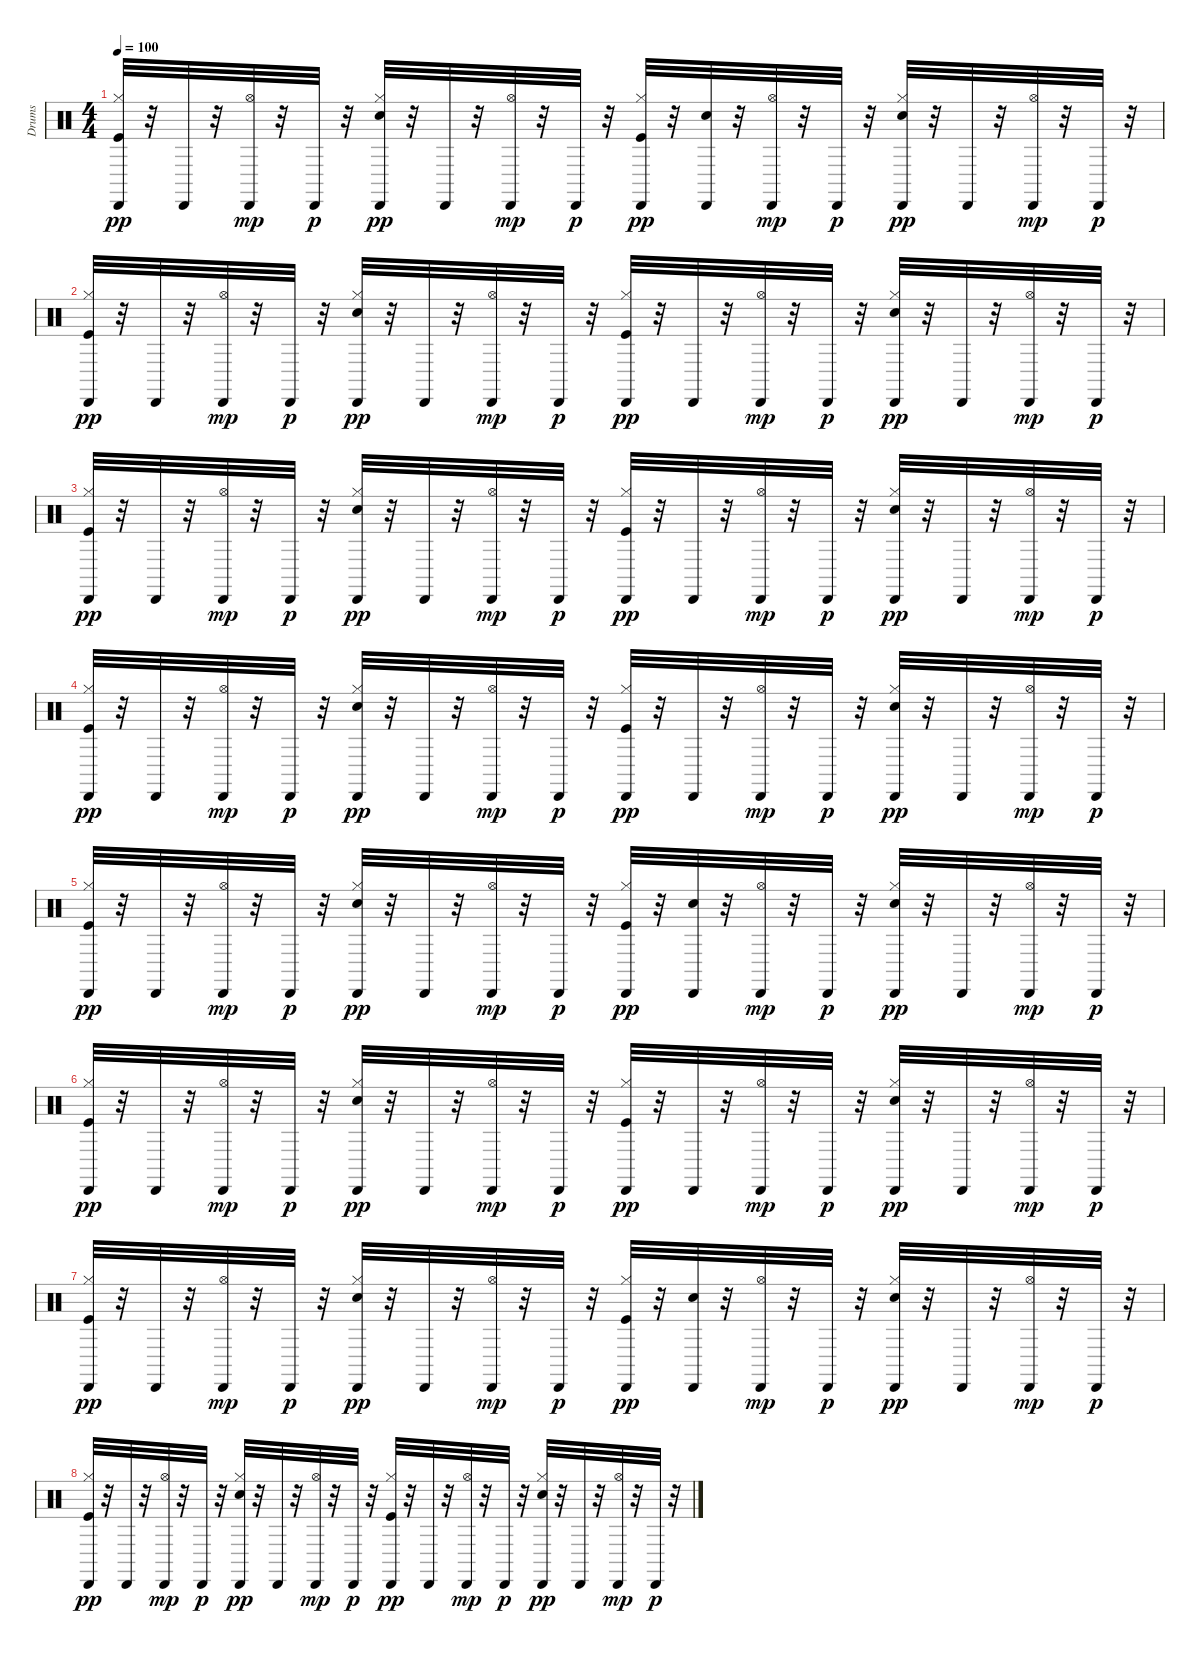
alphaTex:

\track ("Drums" "Drums") {instrument percussion}
\staff {score}
\articulation defaults
\ts (4 4)
\tempo 100
\clef neutral
\ks c
("Kick (hit)" "Hi-Hat (closed)" "Cabasa (hit)").32{dy pp} r.32 "Cabasa (hit)".32 r.32 ("Hi-Hat (open)" "Cabasa (hit)").32{dy mp} r.32 "Cabasa (hit)".32{dy p} r.32 ("Electric Snare (hit)" "Hi-Hat (closed)" "Cabasa (hit)").32{dy pp} r.32 "Cabasa (hit)".32 r.32 ("Hi-Hat (open)" "Cabasa (hit)").32{dy mp} r.32 "Cabasa (hit)".32{dy p} r.32 ("Kick (hit)" "Hi-Hat (closed)" "Cabasa (hit)").32{dy pp} r.32 ("Electric Snare (hit)" "Cabasa (hit)").32 r.32 ("Hi-Hat (open)" "Cabasa (hit)").32{dy mp} r.32 "Cabasa (hit)".32{dy p} r.32 ("Electric Snare (hit)" "Hi-Hat (closed)" "Cabasa (hit)").32{dy pp} r.32 "Cabasa (hit)".32 r.32 ("Hi-Hat (open)" "Cabasa (hit)").32{dy mp} r.32 "Cabasa (hit)".32{dy p} r.32 |
("Kick (hit)" "Hi-Hat (closed)" "Cabasa (hit)").32{dy pp} r.32 "Cabasa (hit)".32 r.32 ("Hi-Hat (open)" "Cabasa (hit)").32{dy mp} r.32 "Cabasa (hit)".32{dy p} r.32 ("Electric Snare (hit)" "Hi-Hat (closed)" "Cabasa (hit)").32{dy pp} r.32 "Cabasa (hit)".32 r.32 ("Hi-Hat (open)" "Cabasa (hit)").32{dy mp} r.32 "Cabasa (hit)".32{dy p} r.32 ("Kick (hit)" "Hi-Hat (closed)" "Cabasa (hit)").32{dy pp} r.32 "Cabasa (hit)".32 r.32 ("Hi-Hat (open)" "Cabasa (hit)").32{dy mp} r.32 "Cabasa (hit)".32{dy p} r.32 ("Electric Snare (hit)" "Hi-Hat (closed)" "Cabasa (hit)").32{dy pp} r.32 "Cabasa (hit)".32 r.32 ("Hi-Hat (open)" "Cabasa (hit)").32{dy mp} r.32 "Cabasa (hit)".32{dy p} r.32 |
("Kick (hit)" "Hi-Hat (closed)" "Cabasa (hit)").32{dy pp} r.32 "Cabasa (hit)".32 r.32 ("Hi-Hat (open)" "Cabasa (hit)").32{dy mp} r.32 "Cabasa (hit)".32{dy p} r.32 ("Electric Snare (hit)" "Hi-Hat (closed)" "Cabasa (hit)").32{dy pp} r.32 "Cabasa (hit)".32 r.32 ("Hi-Hat (open)" "Cabasa (hit)").32{dy mp} r.32 "Cabasa (hit)".32{dy p} r.32 ("Kick (hit)" "Hi-Hat (closed)" "Cabasa (hit)").32{dy pp} r.32 "Cabasa (hit)".32 r.32 ("Hi-Hat (open)" "Cabasa (hit)").32{dy mp} r.32 "Cabasa (hit)".32{dy p} r.32 ("Electric Snare (hit)" "Hi-Hat (closed)" "Cabasa (hit)").32{dy pp} r.32 "Cabasa (hit)".32 r.32 ("Hi-Hat (open)" "Cabasa (hit)").32{dy mp} r.32 "Cabasa (hit)".32{dy p} r.32 |
("Kick (hit)" "Hi-Hat (closed)" "Cabasa (hit)").32{dy pp} r.32 "Cabasa (hit)".32 r.32 ("Hi-Hat (open)" "Cabasa (hit)").32{dy mp} r.32 "Cabasa (hit)".32{dy p} r.32 ("Electric Snare (hit)" "Hi-Hat (closed)" "Cabasa (hit)").32{dy pp} r.32 "Cabasa (hit)".32 r.32 ("Hi-Hat (open)" "Cabasa (hit)").32{dy mp} r.32 "Cabasa (hit)".32{dy p} r.32 ("Kick (hit)" "Hi-Hat (closed)" "Cabasa (hit)").32{dy pp} r.32 "Cabasa (hit)".32 r.32 ("Hi-Hat (open)" "Cabasa (hit)").32{dy mp} r.32 "Cabasa (hit)".32{dy p} r.32 ("Electric Snare (hit)" "Hi-Hat (closed)" "Cabasa (hit)").32{dy pp} r.32 "Cabasa (hit)".32 r.32 ("Hi-Hat (open)" "Cabasa (hit)").32{dy mp} r.32 "Cabasa (hit)".32{dy p} r.32 |
("Kick (hit)" "Hi-Hat (closed)" "Cabasa (hit)").32{dy pp} r.32 "Cabasa (hit)".32 r.32 ("Hi-Hat (open)" "Cabasa (hit)").32{dy mp} r.32 "Cabasa (hit)".32{dy p} r.32 ("Electric Snare (hit)" "Hi-Hat (closed)" "Cabasa (hit)").32{dy pp} r.32 "Cabasa (hit)".32 r.32 ("Hi-Hat (open)" "Cabasa (hit)").32{dy mp} r.32 "Cabasa (hit)".32{dy p} r.32 ("Kick (hit)" "Hi-Hat (closed)" "Cabasa (hit)").32{dy pp} r.32 ("Electric Snare (hit)" "Cabasa (hit)").32 r.32 ("Hi-Hat (open)" "Cabasa (hit)").32{dy mp} r.32 "Cabasa (hit)".32{dy p} r.32 ("Electric Snare (hit)" "Hi-Hat (closed)" "Cabasa (hit)").32{dy pp} r.32 "Cabasa (hit)".32 r.32 ("Hi-Hat (open)" "Cabasa (hit)").32{dy mp} r.32 "Cabasa (hit)".32{dy p} r.32 |
("Kick (hit)" "Hi-Hat (closed)" "Cabasa (hit)").32{dy pp} r.32 "Cabasa (hit)".32 r.32 ("Hi-Hat (open)" "Cabasa (hit)").32{dy mp} r.32 "Cabasa (hit)".32{dy p} r.32 ("Electric Snare (hit)" "Hi-Hat (closed)" "Cabasa (hit)").32{dy pp} r.32 "Cabasa (hit)".32 r.32 ("Hi-Hat (open)" "Cabasa (hit)").32{dy mp} r.32 "Cabasa (hit)".32{dy p} r.32 ("Kick (hit)" "Hi-Hat (closed)" "Cabasa (hit)").32{dy pp} r.32 "Cabasa (hit)".32 r.32 ("Hi-Hat (open)" "Cabasa (hit)").32{dy mp} r.32 "Cabasa (hit)".32{dy p} r.32 ("Electric Snare (hit)" "Hi-Hat (closed)" "Cabasa (hit)").32{dy pp} r.32 "Cabasa (hit)".32 r.32 ("Hi-Hat (open)" "Cabasa (hit)").32{dy mp} r.32 "Cabasa (hit)".32{dy p} r.32 |
("Kick (hit)" "Hi-Hat (closed)" "Cabasa (hit)").32{dy pp} r.32 "Cabasa (hit)".32 r.32 ("Hi-Hat (open)" "Cabasa (hit)").32{dy mp} r.32 "Cabasa (hit)".32{dy p} r.32 ("Electric Snare (hit)" "Hi-Hat (closed)" "Cabasa (hit)").32{dy pp} r.32 "Cabasa (hit)".32 r.32 ("Hi-Hat (open)" "Cabasa (hit)").32{dy mp} r.32 "Cabasa (hit)".32{dy p} r.32 ("Kick (hit)" "Hi-Hat (closed)" "Cabasa (hit)").32{dy pp} r.32 ("Electric Snare (hit)" "Cabasa (hit)").32 r.32 ("Hi-Hat (open)" "Cabasa (hit)").32{dy mp} r.32 "Cabasa (hit)".32{dy p} r.32 ("Electric Snare (hit)" "Hi-Hat (closed)" "Cabasa (hit)").32{dy pp} r.32 "Cabasa (hit)".32 r.32 ("Hi-Hat (open)" "Cabasa (hit)").32{dy mp} r.32 "Cabasa (hit)".32{dy p} r.32 |
("Kick (hit)" "Hi-Hat (closed)" "Cabasa (hit)").32{dy pp} r.32 "Cabasa (hit)".32 r.32 ("Hi-Hat (open)" "Cabasa (hit)").32{dy mp} r.32 "Cabasa (hit)".32{dy p} r.32 ("Electric Snare (hit)" "Hi-Hat (closed)" "Cabasa (hit)").32{dy pp} r.32 "Cabasa (hit)".32 r.32 ("Hi-Hat (open)" "Cabasa (hit)").32{dy mp} r.32 "Cabasa (hit)".32{dy p} r.32 ("Kick (hit)" "Hi-Hat (closed)" "Cabasa (hit)").32{dy pp} r.32 "Cabasa (hit)".32 r.32 ("Hi-Hat (open)" "Cabasa (hit)").32{dy mp} r.32 "Cabasa (hit)".32{dy p} r.32 ("Electric Snare (hit)" "Hi-Hat (closed)" "Cabasa (hit)").32{dy pp} r.32 "Cabasa (hit)".32 r.32 ("Hi-Hat (open)" "Cabasa (hit)").32{dy mp} r.32 "Cabasa (hit)".32{dy p} r.32
